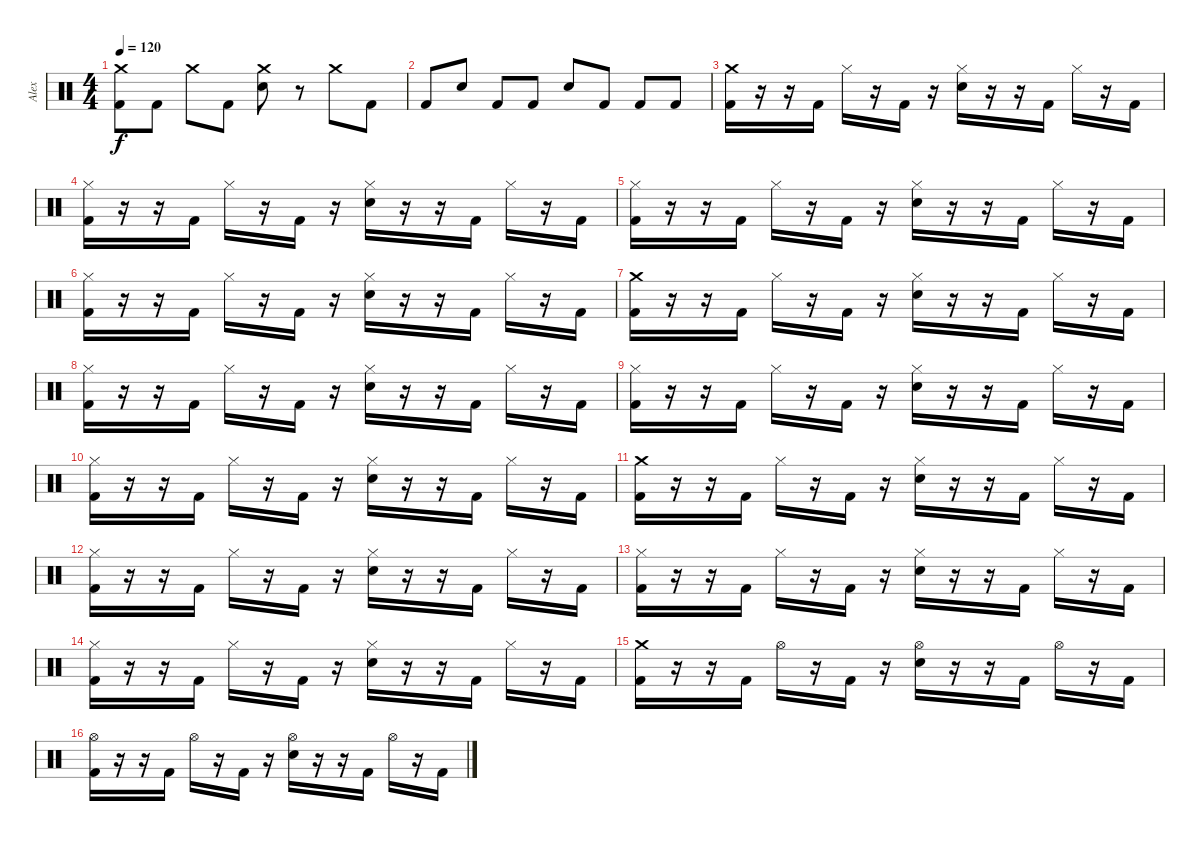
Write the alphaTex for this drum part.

\track ("Alex" "Alex") {instrument percussion}
\staff {score}
\articulation defaults
\ts (4 4)
\tempo 120
\clef neutral
\ks c
("Crash medium (hit)" "Kick (hit) 2").8{dy f} "Kick (hit) 2".8 "Crash medium (hit)".8 "Kick (hit) 2".8 ("Crash medium (hit)" "Snare (hit) 2").8 r.8 "Crash medium (hit)".8 "Kick (hit) 2".8 |
"Kick (hit) 2".8 "Snare (hit) 2".8 "Kick (hit) 2".8 "Kick (hit) 2".8 "Snare (hit) 2".8 "Kick (hit) 2".8 "Kick (hit) 2".8 "Kick (hit) 2".8 |
("Crash medium (hit)" "Kick (hit) 2").16 r.16 r.16 "Kick (hit) 2".16 "Hi-Hat (closed)".16 r.16 "Kick (hit) 2".16 r.16 ("Hi-Hat (closed)" "Snare (hit) 2").16 r.16 r.16 "Kick (hit) 2".16 "Hi-Hat (closed)".16 r.16 "Kick (hit) 2".16 |
("Hi-Hat (closed)" "Kick (hit) 2").16 r.16 r.16 "Kick (hit) 2".16 "Hi-Hat (closed)".16 r.16 "Kick (hit) 2".16 r.16 ("Hi-Hat (closed)" "Snare (hit) 2").16 r.16 r.16 "Kick (hit) 2".16 "Hi-Hat (closed)".16 r.16 "Kick (hit) 2".16 |
("Hi-Hat (closed)" "Kick (hit) 2").16 r.16 r.16 "Kick (hit) 2".16 "Hi-Hat (closed)".16 r.16 "Kick (hit) 2".16 r.16 ("Hi-Hat (closed)" "Snare (hit) 2").16 r.16 r.16 "Kick (hit) 2".16 "Hi-Hat (closed)".16 r.16 "Kick (hit) 2".16 |
("Hi-Hat (closed)" "Kick (hit) 2").16 r.16 r.16 "Kick (hit) 2".16 "Hi-Hat (closed)".16 r.16 "Kick (hit) 2".16 r.16 ("Hi-Hat (closed)" "Snare (hit) 2").16 r.16 r.16 "Kick (hit) 2".16 "Hi-Hat (closed)".16 r.16 "Kick (hit) 2".16 |
("Crash medium (hit)" "Kick (hit) 2").16 r.16 r.16 "Kick (hit) 2".16 "Hi-Hat (closed)".16 r.16 "Kick (hit) 2".16 r.16 ("Hi-Hat (closed)" "Snare (hit) 2").16 r.16 r.16 "Kick (hit) 2".16 "Hi-Hat (closed)".16 r.16 "Kick (hit) 2".16 |
("Hi-Hat (closed)" "Kick (hit) 2").16 r.16 r.16 "Kick (hit) 2".16 "Hi-Hat (closed)".16 r.16 "Kick (hit) 2".16 r.16 ("Hi-Hat (closed)" "Snare (hit) 2").16 r.16 r.16 "Kick (hit) 2".16 "Hi-Hat (closed)".16 r.16 "Kick (hit) 2".16 |
("Hi-Hat (closed)" "Kick (hit) 2").16 r.16 r.16 "Kick (hit) 2".16 "Hi-Hat (closed)".16 r.16 "Kick (hit) 2".16 r.16 ("Hi-Hat (closed)" "Snare (hit) 2").16 r.16 r.16 "Kick (hit) 2".16 "Hi-Hat (closed)".16 r.16 "Kick (hit) 2".16 |
("Hi-Hat (closed)" "Kick (hit) 2").16 r.16 r.16 "Kick (hit) 2".16 "Hi-Hat (closed)".16 r.16 "Kick (hit) 2".16 r.16 ("Hi-Hat (closed)" "Snare (hit) 2").16 r.16 r.16 "Kick (hit) 2".16 "Hi-Hat (closed)".16 r.16 "Kick (hit) 2".16 |
("Crash medium (hit)" "Kick (hit) 2").16 r.16 r.16 "Kick (hit) 2".16 "Hi-Hat (closed)".16 r.16 "Kick (hit) 2".16 r.16 ("Hi-Hat (closed)" "Snare (hit) 2").16 r.16 r.16 "Kick (hit) 2".16 "Hi-Hat (closed)".16 r.16 "Kick (hit) 2".16 |
("Hi-Hat (closed)" "Kick (hit) 2").16 r.16 r.16 "Kick (hit) 2".16 "Hi-Hat (closed)".16 r.16 "Kick (hit) 2".16 r.16 ("Hi-Hat (closed)" "Snare (hit) 2").16 r.16 r.16 "Kick (hit) 2".16 "Hi-Hat (closed)".16 r.16 "Kick (hit) 2".16 |
("Hi-Hat (closed)" "Kick (hit) 2").16 r.16 r.16 "Kick (hit) 2".16 "Hi-Hat (closed)".16 r.16 "Kick (hit) 2".16 r.16 ("Hi-Hat (closed)" "Snare (hit) 2").16 r.16 r.16 "Kick (hit) 2".16 "Hi-Hat (closed)".16 r.16 "Kick (hit) 2".16 |
("Hi-Hat (closed)" "Kick (hit) 2").16 r.16 r.16 "Kick (hit) 2".16 "Hi-Hat (closed)".16 r.16 "Kick (hit) 2".16 r.16 ("Hi-Hat (closed)" "Snare (hit) 2").16 r.16 r.16 "Kick (hit) 2".16 "Hi-Hat (closed)".16 r.16 "Kick (hit) 2".16 |
("Crash medium (hit)" "Kick (hit) 2").16 r.16 r.16 "Kick (hit) 2".16 "Hi-Hat (open)".16 r.16 "Kick (hit) 2".16 r.16 ("Hi-Hat (open)" "Snare (hit) 2").16 r.16 r.16 "Kick (hit) 2".16 "Hi-Hat (open)".16 r.16 "Kick (hit) 2".16 |
("Hi-Hat (open)" "Kick (hit) 2").16 r.16 r.16 "Kick (hit) 2".16 "Hi-Hat (open)".16 r.16 "Kick (hit) 2".16 r.16 ("Hi-Hat (open)" "Snare (hit) 2").16 r.16 r.16 "Kick (hit) 2".16 "Hi-Hat (open)".16 r.16 "Kick (hit) 2".16
